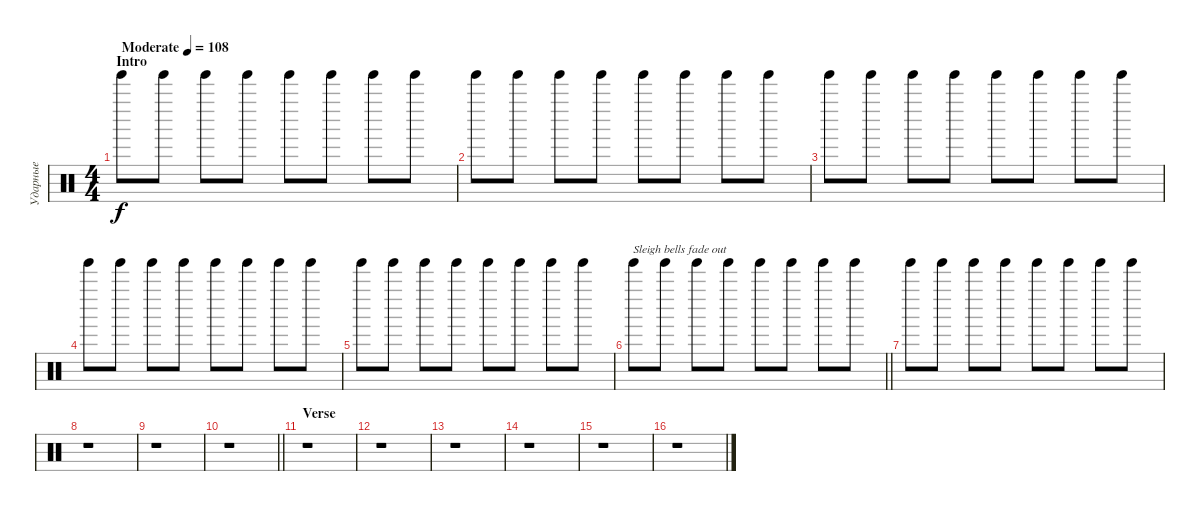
\track ("Ударные" "Ударные") {instrument percussion}
\staff {score}
\articulation defaults
\ts (4 4)
\section ("" "Intro")
\tempo (108 "Moderate")
\clef neutral
\ks c "Tinkle Bell (hit)".8{dy f} "Tinkle Bell (hit)".8 "Tinkle Bell (hit)".8 "Tinkle Bell (hit)".8 "Tinkle Bell (hit)".8 "Tinkle Bell (hit)".8 "Tinkle Bell (hit)".8 "Tinkle Bell (hit)".8
|
"Tinkle Bell (hit)".8 "Tinkle Bell (hit)".8 "Tinkle Bell (hit)".8 "Tinkle Bell (hit)".8 "Tinkle Bell (hit)".8 "Tinkle Bell (hit)".8 "Tinkle Bell (hit)".8 "Tinkle Bell (hit)".8 |
"Tinkle Bell (hit)".8 "Tinkle Bell (hit)".8 "Tinkle Bell (hit)".8 "Tinkle Bell (hit)".8 "Tinkle Bell (hit)".8 "Tinkle Bell (hit)".8 "Tinkle Bell (hit)".8 "Tinkle Bell (hit)".8 |
"Tinkle Bell (hit)".8 "Tinkle Bell (hit)".8 "Tinkle Bell (hit)".8 "Tinkle Bell (hit)".8 "Tinkle Bell (hit)".8 "Tinkle Bell (hit)".8 "Tinkle Bell (hit)".8 "Tinkle Bell (hit)".8 |
"Tinkle Bell (hit)".8 "Tinkle Bell (hit)".8 "Tinkle Bell (hit)".8 "Tinkle Bell (hit)".8 "Tinkle Bell (hit)".8 "Tinkle Bell (hit)".8 "Tinkle Bell (hit)".8 "Tinkle Bell (hit)".8 |
\barLineRight lightlight "Tinkle Bell (hit)".8{txt "Sleigh bells fade out" volume 0} "Tinkle Bell (hit)".8 "Tinkle Bell (hit)".8 "Tinkle Bell (hit)".8 "Tinkle Bell (hit)".8 "Tinkle Bell (hit)".8 "Tinkle Bell (hit)".8 "Tinkle Bell (hit)".8
|
"Tinkle Bell (hit)".8 "Tinkle Bell (hit)".8 "Tinkle Bell (hit)".8 "Tinkle Bell (hit)".8 "Tinkle Bell (hit)".8 "Tinkle Bell (hit)".8 "Tinkle Bell (hit)".8 "Tinkle Bell (hit)".8 |
r.1 |
r.1 |
\barLineRight lightlight
r.1 |
\section ("" "Verse")
r.1 |
r.1 |
r.1 |
r.1 |
r.1 |
r.1
